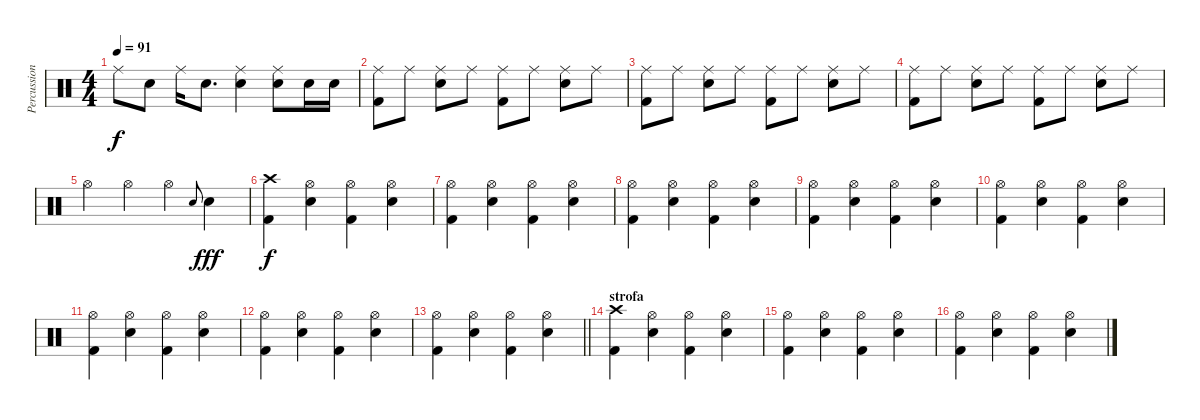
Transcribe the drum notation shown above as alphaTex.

\track ("Percussion" "Percussion") {instrument percussion}
\staff {score}
\articulation defaults
\ts (4 4)
\tempo 91
\clef neutral
\ks c "Ride (middle)".8{dy f} "Snare (hit) 2".8 "Ride (middle)".16 "Snare (hit) 2".8{d}
("Snare (hit) 2" "Ride (middle)").4 ("Snare (hit) 2" "Ride (middle)").8 "Snare (hit) 2".16 "Snare (hit) 2".16 |
("Ride (middle)" "Kick (hit) 2").8 "Ride (middle)".8 ("Ride (middle)" "Snare (hit) 2").8 "Ride (middle)".8 ("Ride (middle)" "Kick (hit) 2").8 "Ride (middle)".8 ("Ride (middle)" "Snare (hit) 2").8 "Ride (middle)".8 |
("Ride (middle)" "Kick (hit) 2").8 "Ride (middle)".8 ("Ride (middle)" "Snare (hit) 2").8 "Ride (middle)".8 ("Ride (middle)" "Kick (hit) 2").8 "Ride (middle)".8 ("Ride (middle)" "Snare (hit) 2").8 "Ride (middle)".8 |
("Ride (middle)" "Kick (hit) 2").8 "Ride (middle)".8 ("Ride (middle)" "Snare (hit) 2").8 "Ride (middle)".8 ("Ride (middle)" "Kick (hit) 2").8 "Ride (middle)".8 ("Ride (middle)" "Snare (hit) 2").8 "Ride (middle)".8 |
"Hi-Hat (open)".4 "Hi-Hat (open)".4 "Hi-Hat (open)".4 "Snare (hit) 2".8{gr onbeat} "Snare (hit) 2".4{dy fff volume 16} |
("Crash high (hit)" "Kick (hit) 2").4{dy f volume 7} ("Snare (hit) 2" "Hi-Hat (open)").4 ("Hi-Hat (open)" "Kick (hit) 2").4 ("Hi-Hat (open)" "Snare (hit) 2").4 |
("Hi-Hat (open)" "Kick (hit) 2").4 ("Snare (hit) 2" "Hi-Hat (open)").4 ("Hi-Hat (open)" "Kick (hit) 2").4 ("Hi-Hat (open)" "Snare (hit) 2").4 |
("Hi-Hat (open)" "Kick (hit) 2").4 ("Snare (hit) 2" "Hi-Hat (open)").4 ("Hi-Hat (open)" "Kick (hit) 2").4 ("Hi-Hat (open)" "Snare (hit) 2").4 |
("Hi-Hat (open)" "Kick (hit) 2").4 ("Snare (hit) 2" "Hi-Hat (open)").4 ("Hi-Hat (open)" "Kick (hit) 2").4 ("Hi-Hat (open)" "Snare (hit) 2").4 |
("Hi-Hat (open)" "Kick (hit) 2").4 ("Snare (hit) 2" "Hi-Hat (open)").4 ("Hi-Hat (open)" "Kick (hit) 2").4 ("Hi-Hat (open)" "Snare (hit) 2").4 |
("Hi-Hat (open)" "Kick (hit) 2").4 ("Snare (hit) 2" "Hi-Hat (open)").4 ("Hi-Hat (open)" "Kick (hit) 2").4 ("Hi-Hat (open)" "Snare (hit) 2").4 |
("Hi-Hat (open)" "Kick (hit) 2").4 ("Snare (hit) 2" "Hi-Hat (open)").4 ("Hi-Hat (open)" "Kick (hit) 2").4 ("Hi-Hat (open)" "Snare (hit) 2").4 |
\barLineRight lightlight
("Hi-Hat (open)" "Kick (hit) 2").4 ("Snare (hit) 2" "Hi-Hat (open)").4 ("Hi-Hat (open)" "Kick (hit) 2").4 ("Hi-Hat (open)" "Snare (hit) 2").4 |
\section ("" "strofa")
("Crash high (hit)" "Kick (hit) 2").4 ("Snare (hit) 2" "Hi-Hat (open)").4 ("Hi-Hat (open)" "Kick (hit) 2").4 ("Hi-Hat (open)" "Snare (hit) 2").4 |
("Hi-Hat (open)" "Kick (hit) 2").4 ("Snare (hit) 2" "Hi-Hat (open)").4 ("Hi-Hat (open)" "Kick (hit) 2").4 ("Hi-Hat (open)" "Snare (hit) 2").4 |
("Hi-Hat (open)" "Kick (hit) 2").4 ("Snare (hit) 2" "Hi-Hat (open)").4 ("Hi-Hat (open)" "Kick (hit) 2").4 ("Hi-Hat (open)" "Snare (hit) 2").4
